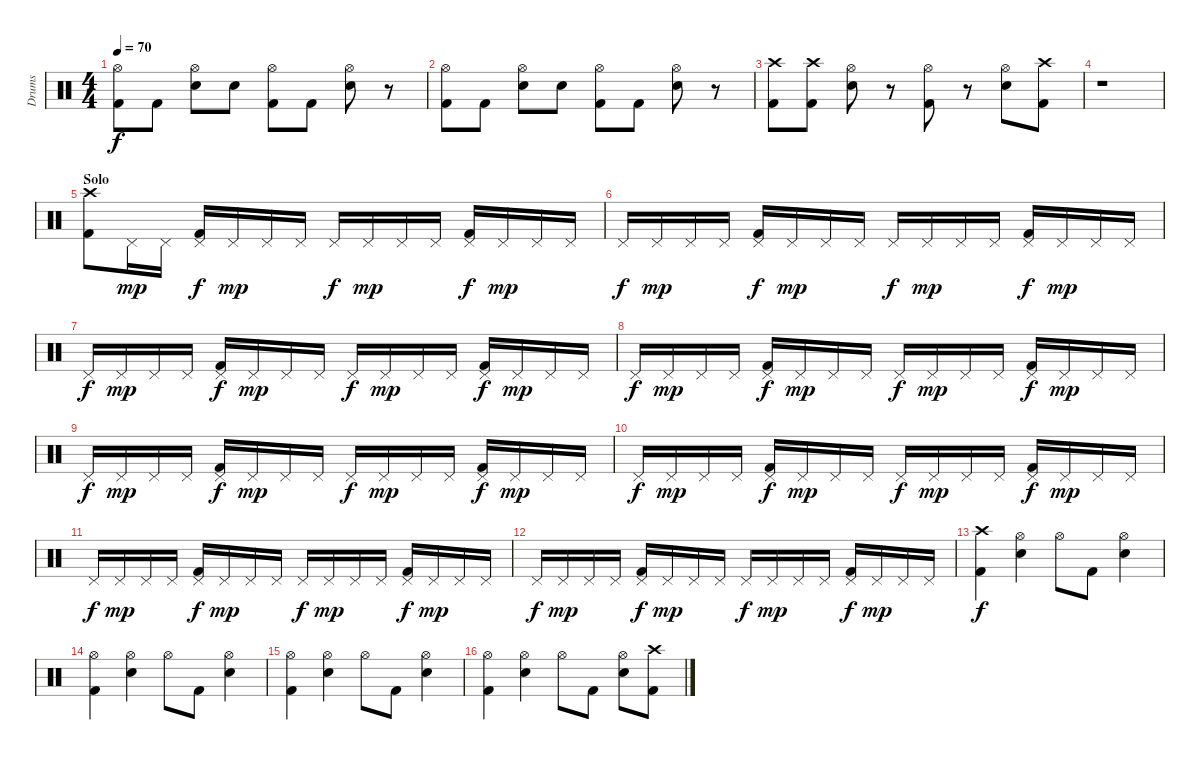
\track ("Drums" "Drums") {instrument percussion}
\staff {score}
\articulation defaults
\ts (4 4)
\tempo 70
\clef neutral
\ks c
("Hi-Hat (open)" "Kick (hit) 2").8{dy f} "Kick (hit) 2".8 ("Hi-Hat (open)" "Snare (hit) 2").8 "Snare (hit) 2".8 ("Hi-Hat (open)" "Kick (hit) 2").8 "Kick (hit) 2".8 ("Hi-Hat (open)" "Snare (hit) 2").8 r.8 |
("Hi-Hat (open)" "Kick (hit) 2").8 "Kick (hit) 2".8 ("Hi-Hat (open)" "Snare (hit) 2").8 "Snare (hit) 2".8 ("Hi-Hat (open)" "Kick (hit) 2").8 "Kick (hit) 2".8 ("Hi-Hat (open)" "Snare (hit) 2").8 r.8 |
("Crash high (hit)" "Kick (hit) 2").8 ("Crash high (hit)" "Kick (hit) 2").8 ("Hi-Hat (open)" "Snare (hit) 2").8 r.8 ("Hi-Hat (open)" "Kick (hit) 2").8 r.8 ("Hi-Hat (open)" "Snare (hit) 2").8 ("Crash high (hit)" "Kick (hit) 2").8 |
r.1 |
\section ("" "Solo")
("Crash high (hit)" "Kick (hit) 2").8 "Pedal Hi-Hat (hit)".16{dy mp} "Pedal Hi-Hat (hit)".16 ("Pedal Hi-Hat (hit)" "Kick (hit) 2").16{dy f} "Pedal Hi-Hat (hit)".16{dy mp} "Pedal Hi-Hat (hit)".16 "Pedal Hi-Hat (hit)".16 "Pedal Hi-Hat (hit)".16{dy f} "Pedal Hi-Hat (hit)".16{dy mp} "Pedal Hi-Hat (hit)".16 "Pedal Hi-Hat (hit)".16 ("Pedal Hi-Hat (hit)" "Kick (hit) 2").16{dy f} "Pedal Hi-Hat (hit)".16{dy mp} "Pedal Hi-Hat (hit)".16 "Pedal Hi-Hat (hit)".16 |
"Pedal Hi-Hat (hit)".16{dy f} "Pedal Hi-Hat (hit)".16{dy mp} "Pedal Hi-Hat (hit)".16 "Pedal Hi-Hat (hit)".16 ("Pedal Hi-Hat (hit)" "Kick (hit) 2").16{dy f} "Pedal Hi-Hat (hit)".16{dy mp} "Pedal Hi-Hat (hit)".16 "Pedal Hi-Hat (hit)".16 "Pedal Hi-Hat (hit)".16{dy f} "Pedal Hi-Hat (hit)".16{dy mp} "Pedal Hi-Hat (hit)".16 "Pedal Hi-Hat (hit)".16 ("Pedal Hi-Hat (hit)" "Kick (hit) 2").16{dy f} "Pedal Hi-Hat (hit)".16{dy mp} "Pedal Hi-Hat (hit)".16 "Pedal Hi-Hat (hit)".16 |
"Pedal Hi-Hat (hit)".16{dy f} "Pedal Hi-Hat (hit)".16{dy mp} "Pedal Hi-Hat (hit)".16 "Pedal Hi-Hat (hit)".16 ("Pedal Hi-Hat (hit)" "Kick (hit) 2").16{dy f} "Pedal Hi-Hat (hit)".16{dy mp} "Pedal Hi-Hat (hit)".16 "Pedal Hi-Hat (hit)".16 "Pedal Hi-Hat (hit)".16{dy f} "Pedal Hi-Hat (hit)".16{dy mp} "Pedal Hi-Hat (hit)".16 "Pedal Hi-Hat (hit)".16 ("Pedal Hi-Hat (hit)" "Kick (hit) 2").16{dy f} "Pedal Hi-Hat (hit)".16{dy mp} "Pedal Hi-Hat (hit)".16 "Pedal Hi-Hat (hit)".16 |
"Pedal Hi-Hat (hit)".16{dy f} "Pedal Hi-Hat (hit)".16{dy mp} "Pedal Hi-Hat (hit)".16 "Pedal Hi-Hat (hit)".16 ("Pedal Hi-Hat (hit)" "Kick (hit) 2").16{dy f} "Pedal Hi-Hat (hit)".16{dy mp} "Pedal Hi-Hat (hit)".16 "Pedal Hi-Hat (hit)".16 "Pedal Hi-Hat (hit)".16{dy f} "Pedal Hi-Hat (hit)".16{dy mp} "Pedal Hi-Hat (hit)".16 "Pedal Hi-Hat (hit)".16 ("Pedal Hi-Hat (hit)" "Kick (hit) 2").16{dy f} "Pedal Hi-Hat (hit)".16{dy mp} "Pedal Hi-Hat (hit)".16 "Pedal Hi-Hat (hit)".16 |
"Pedal Hi-Hat (hit)".16{dy f} "Pedal Hi-Hat (hit)".16{dy mp} "Pedal Hi-Hat (hit)".16 "Pedal Hi-Hat (hit)".16 ("Pedal Hi-Hat (hit)" "Kick (hit) 2").16{dy f} "Pedal Hi-Hat (hit)".16{dy mp} "Pedal Hi-Hat (hit)".16 "Pedal Hi-Hat (hit)".16 "Pedal Hi-Hat (hit)".16{dy f} "Pedal Hi-Hat (hit)".16{dy mp} "Pedal Hi-Hat (hit)".16 "Pedal Hi-Hat (hit)".16 ("Pedal Hi-Hat (hit)" "Kick (hit) 2").16{dy f} "Pedal Hi-Hat (hit)".16{dy mp} "Pedal Hi-Hat (hit)".16 "Pedal Hi-Hat (hit)".16 |
"Pedal Hi-Hat (hit)".16{dy f} "Pedal Hi-Hat (hit)".16{dy mp} "Pedal Hi-Hat (hit)".16 "Pedal Hi-Hat (hit)".16 ("Pedal Hi-Hat (hit)" "Kick (hit) 2").16{dy f} "Pedal Hi-Hat (hit)".16{dy mp} "Pedal Hi-Hat (hit)".16 "Pedal Hi-Hat (hit)".16 "Pedal Hi-Hat (hit)".16{dy f} "Pedal Hi-Hat (hit)".16{dy mp} "Pedal Hi-Hat (hit)".16 "Pedal Hi-Hat (hit)".16 ("Pedal Hi-Hat (hit)" "Kick (hit) 2").16{dy f} "Pedal Hi-Hat (hit)".16{dy mp} "Pedal Hi-Hat (hit)".16 "Pedal Hi-Hat (hit)".16 |
"Pedal Hi-Hat (hit)".16{dy f} "Pedal Hi-Hat (hit)".16{dy mp} "Pedal Hi-Hat (hit)".16 "Pedal Hi-Hat (hit)".16 ("Pedal Hi-Hat (hit)" "Kick (hit) 2").16{dy f} "Pedal Hi-Hat (hit)".16{dy mp} "Pedal Hi-Hat (hit)".16 "Pedal Hi-Hat (hit)".16 "Pedal Hi-Hat (hit)".16{dy f} "Pedal Hi-Hat (hit)".16{dy mp} "Pedal Hi-Hat (hit)".16 "Pedal Hi-Hat (hit)".16 ("Pedal Hi-Hat (hit)" "Kick (hit) 2").16{dy f} "Pedal Hi-Hat (hit)".16{dy mp} "Pedal Hi-Hat (hit)".16 "Pedal Hi-Hat (hit)".16 |
"Pedal Hi-Hat (hit)".16{dy f} "Pedal Hi-Hat (hit)".16{dy mp} "Pedal Hi-Hat (hit)".16 "Pedal Hi-Hat (hit)".16 ("Pedal Hi-Hat (hit)" "Kick (hit) 2").16{dy f} "Pedal Hi-Hat (hit)".16{dy mp} "Pedal Hi-Hat (hit)".16 "Pedal Hi-Hat (hit)".16 "Pedal Hi-Hat (hit)".16{dy f} "Pedal Hi-Hat (hit)".16{dy mp} "Pedal Hi-Hat (hit)".16 "Pedal Hi-Hat (hit)".16 ("Pedal Hi-Hat (hit)" "Kick (hit) 2").16{dy f} "Pedal Hi-Hat (hit)".16{dy mp} "Pedal Hi-Hat (hit)".16 "Pedal Hi-Hat (hit)".16 |
("Crash high (hit)" "Kick (hit) 2").4{dy f} ("Hi-Hat (open)" "Snare (hit) 2").4 "Hi-Hat (open)".8 "Kick (hit) 2".8 ("Hi-Hat (open)" "Snare (hit) 2").4 |
("Hi-Hat (open)" "Kick (hit) 2").4 ("Hi-Hat (open)" "Snare (hit) 2").4 "Hi-Hat (open)".8 "Kick (hit) 2".8 ("Hi-Hat (open)" "Snare (hit) 2").4 |
("Hi-Hat (open)" "Kick (hit) 2").4 ("Hi-Hat (open)" "Snare (hit) 2").4 "Hi-Hat (open)".8 "Kick (hit) 2".8 ("Hi-Hat (open)" "Snare (hit) 2").4 |
("Hi-Hat (open)" "Kick (hit) 2").4 ("Hi-Hat (open)" "Snare (hit) 2").4 "Hi-Hat (open)".8 "Kick (hit) 2".8 ("Hi-Hat (open)" "Snare (hit) 2").8 ("Crash high (hit)" "Kick (hit) 2").8
